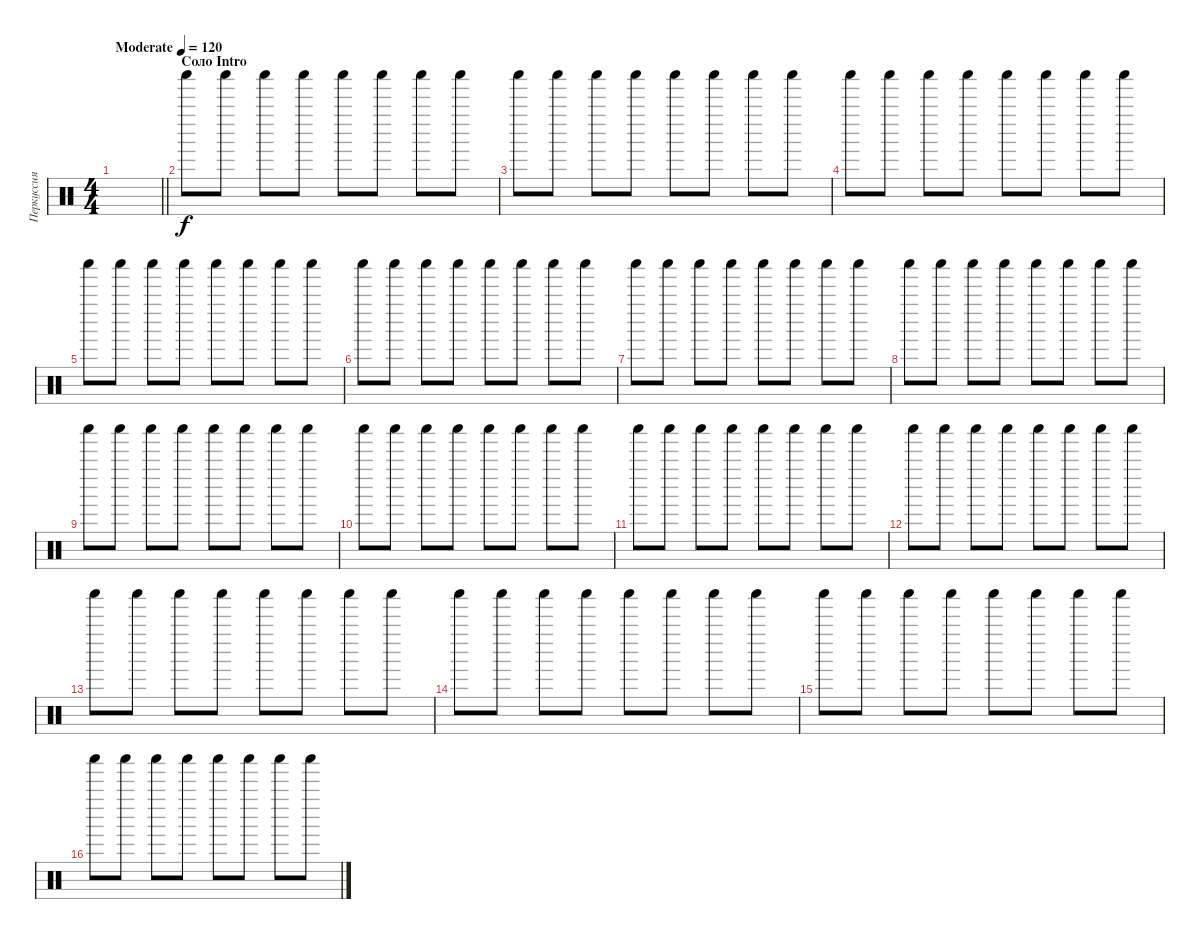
\track ("Перкуссия" "Перкуссия") {instrument percussion}
\staff {score}
\articulation defaults
\ts (4 4)
\tempo (120 "Moderate")
\clef neutral
\barLineRight lightlight
\ks c
|
\section ("" "Соло Intro")
"Shaker (hit)".8{volume 1} "Shaker (hit)".8 "Shaker (hit)".8 "Shaker (hit)".8 "Shaker (hit)".8 "Shaker (hit)".8 "Shaker (hit)".8 "Shaker (hit)".8 |
"Shaker (hit)".8 "Shaker (hit)".8 "Shaker (hit)".8 "Shaker (hit)".8 "Shaker (hit)".8 "Shaker (hit)".8 "Shaker (hit)".8 "Shaker (hit)".8 |
"Shaker (hit)".8 "Shaker (hit)".8 "Shaker (hit)".8 "Shaker (hit)".8 "Shaker (hit)".8 "Shaker (hit)".8 "Shaker (hit)".8 "Shaker (hit)".8 |
"Shaker (hit)".8 "Shaker (hit)".8 "Shaker (hit)".8 "Shaker (hit)".8 "Shaker (hit)".8 "Shaker (hit)".8 "Shaker (hit)".8 "Shaker (hit)".8 |
"Shaker (hit)".8 "Shaker (hit)".8 "Shaker (hit)".8 "Shaker (hit)".8 "Shaker (hit)".8 "Shaker (hit)".8 "Shaker (hit)".8 "Shaker (hit)".8 |
"Shaker (hit)".8 "Shaker (hit)".8 "Shaker (hit)".8 "Shaker (hit)".8 "Shaker (hit)".8 "Shaker (hit)".8 "Shaker (hit)".8 "Shaker (hit)".8 |
"Shaker (hit)".8 "Shaker (hit)".8 "Shaker (hit)".8 "Shaker (hit)".8 "Shaker (hit)".8 "Shaker (hit)".8 "Shaker (hit)".8 "Shaker (hit)".8 |
"Shaker (hit)".8 "Shaker (hit)".8 "Shaker (hit)".8 "Shaker (hit)".8 "Shaker (hit)".8 "Shaker (hit)".8 "Shaker (hit)".8 "Shaker (hit)".8 |
"Shaker (hit)".8 "Shaker (hit)".8 "Shaker (hit)".8 "Shaker (hit)".8 "Shaker (hit)".8 "Shaker (hit)".8 "Shaker (hit)".8 "Shaker (hit)".8 |
"Shaker (hit)".8 "Shaker (hit)".8 "Shaker (hit)".8 "Shaker (hit)".8 "Shaker (hit)".8 "Shaker (hit)".8 "Shaker (hit)".8 "Shaker (hit)".8 |
"Shaker (hit)".8 "Shaker (hit)".8 "Shaker (hit)".8 "Shaker (hit)".8 "Shaker (hit)".8 "Shaker (hit)".8 "Shaker (hit)".8 "Shaker (hit)".8 |
"Shaker (hit)".8 "Shaker (hit)".8 "Shaker (hit)".8 "Shaker (hit)".8 "Shaker (hit)".8 "Shaker (hit)".8 "Shaker (hit)".8 "Shaker (hit)".8 |
"Shaker (hit)".8 "Shaker (hit)".8 "Shaker (hit)".8 "Shaker (hit)".8 "Shaker (hit)".8 "Shaker (hit)".8 "Shaker (hit)".8 "Shaker (hit)".8 |
"Shaker (hit)".8 "Shaker (hit)".8 "Shaker (hit)".8 "Shaker (hit)".8 "Shaker (hit)".8 "Shaker (hit)".8 "Shaker (hit)".8 "Shaker (hit)".8 |
"Shaker (hit)".8 "Shaker (hit)".8 "Shaker (hit)".8 "Shaker (hit)".8 "Shaker (hit)".8 "Shaker (hit)".8 "Shaker (hit)".8 "Shaker (hit)".8
